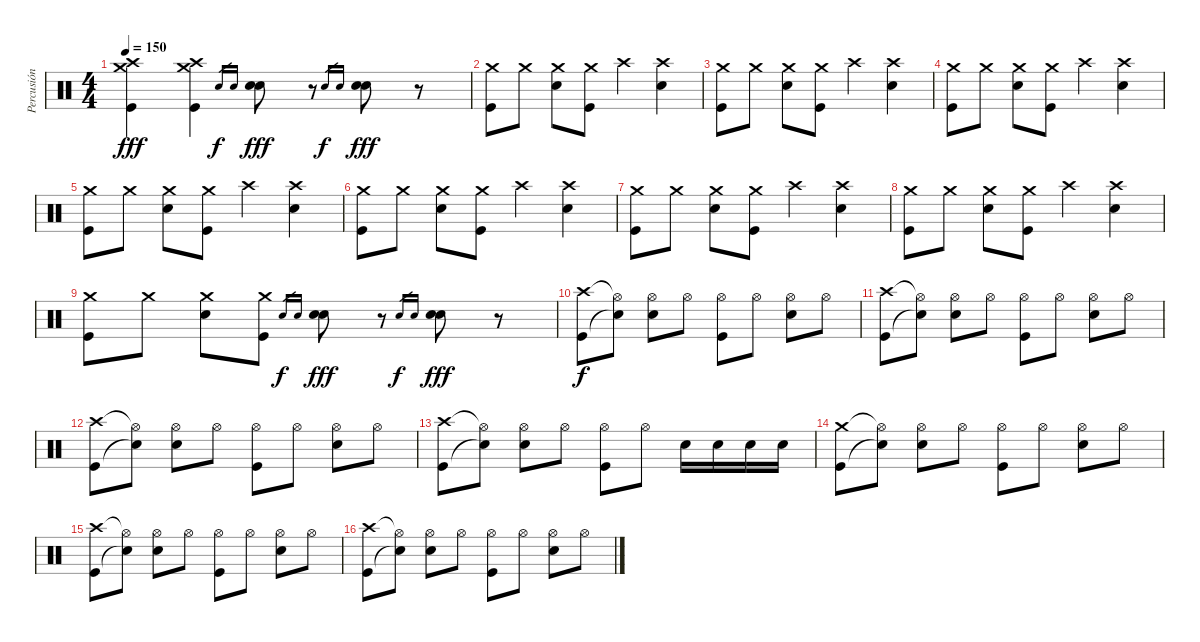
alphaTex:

\track ("Percusión" "Percusión") {instrument percussion}
\staff {score}
\articulation defaults
\ts (4 4)
\tempo 150
\clef neutral
\ks c
("Kick (hit)" "Crash high (hit)" "Crash medium (hit)").4{dy fff} ("Kick (hit)" "Crash high (hit)" "Crash medium (hit)").4 "Electric Snare (hit)".16{gr dy f} "Electric Snare (hit)".16{gr} ("Electric Snare (hit)" "Electric Snare (hit)").8{dy fff} r.8 "Electric Snare (hit)".16{gr dy f} "Electric Snare (hit)".16{gr} ("Electric Snare (hit)" "Electric Snare (hit)").8{dy fff} r.8 |
("Crash medium (hit)" "Kick (hit)").8 "Crash medium (hit)".8 ("Crash medium (hit)" "Electric Snare (hit)").8 ("Crash medium (hit)" "Kick (hit)").8 "Crash high (hit)".4 ("Crash high (hit)" "Electric Snare (hit)").4 |
("Crash medium (hit)" "Kick (hit)").8 "Crash medium (hit)".8 ("Crash medium (hit)" "Electric Snare (hit)").8 ("Crash medium (hit)" "Kick (hit)").8 "Crash high (hit)".4 ("Crash high (hit)" "Electric Snare (hit)").4 |
("Crash medium (hit)" "Kick (hit)").8 "Crash medium (hit)".8 ("Crash medium (hit)" "Electric Snare (hit)").8 ("Crash medium (hit)" "Kick (hit)").8 "Crash high (hit)".4 ("Crash high (hit)" "Electric Snare (hit)").4 |
("Crash medium (hit)" "Kick (hit)").8 "Crash medium (hit)".8 ("Crash medium (hit)" "Electric Snare (hit)").8 ("Crash medium (hit)" "Kick (hit)").8 "Crash high (hit)".4 ("Crash high (hit)" "Electric Snare (hit)").4 |
("Crash medium (hit)" "Kick (hit)").8 "Crash medium (hit)".8 ("Crash medium (hit)" "Electric Snare (hit)").8 ("Crash medium (hit)" "Kick (hit)").8 "Crash high (hit)".4 ("Crash high (hit)" "Electric Snare (hit)").4 |
("Crash medium (hit)" "Kick (hit)").8 "Crash medium (hit)".8 ("Crash medium (hit)" "Electric Snare (hit)").8 ("Crash medium (hit)" "Kick (hit)").8 "Crash high (hit)".4 ("Crash high (hit)" "Electric Snare (hit)").4 |
("Crash medium (hit)" "Kick (hit)").8 "Crash medium (hit)".8 ("Crash medium (hit)" "Electric Snare (hit)").8 ("Crash medium (hit)" "Kick (hit)").8 "Crash high (hit)".4 ("Crash high (hit)" "Electric Snare (hit)").4 |
("Crash medium (hit)" "Kick (hit)").8 "Crash medium (hit)".8 ("Crash medium (hit)" "Electric Snare (hit)").8 ("Crash medium (hit)" "Kick (hit)").8 "Electric Snare (hit)".16{gr dy f} "Electric Snare (hit)".16{gr} ("Electric Snare (hit)" "Electric Snare (hit)").8{dy fff} r.8 "Electric Snare (hit)".16{gr dy f} "Electric Snare (hit)".16{gr} ("Electric Snare (hit)" "Electric Snare (hit)").8{dy fff} r.8 |
("Kick (hit)" "Crash high (hit)").8{dy f} ("Snare (hit)"{t} "Hi-Hat (open)"{t}).8 ("Electric Snare (hit)" "Hi-Hat (open)").8 "Hi-Hat (open)".8 ("Kick (hit)" "Hi-Hat (open)").8 "Hi-Hat (open)".8 ("Electric Snare (hit)" "Hi-Hat (open)").8 "Hi-Hat (open)".8 |
("Kick (hit)" "Crash high (hit)").8 ("Snare (hit)"{t} "Hi-Hat (open)"{t}).8 ("Electric Snare (hit)" "Hi-Hat (open)").8 "Hi-Hat (open)".8 ("Kick (hit)" "Hi-Hat (open)").8 "Hi-Hat (open)".8 ("Electric Snare (hit)" "Hi-Hat (open)").8 "Hi-Hat (open)".8 |
("Kick (hit)" "Crash high (hit)").8 ("Snare (hit)"{t} "Hi-Hat (open)"{t}).8 ("Electric Snare (hit)" "Hi-Hat (open)").8 "Hi-Hat (open)".8 ("Kick (hit)" "Hi-Hat (open)").8 "Hi-Hat (open)".8 ("Electric Snare (hit)" "Hi-Hat (open)").8 "Hi-Hat (open)".8 |
("Kick (hit)" "Crash high (hit)").8 ("Snare (hit)"{t} "Hi-Hat (open)"{t}).8 ("Electric Snare (hit)" "Hi-Hat (open)").8 "Hi-Hat (open)".8 ("Kick (hit)" "Hi-Hat (open)").8 "Hi-Hat (open)".8 "Electric Snare (hit)".16 "Electric Snare (hit)".16 "Electric Snare (hit)".16 "Electric Snare (hit)".16 |
("Kick (hit)" "Crash medium (hit)").8 ("Snare (hit)"{t} "Hi-Hat (open)"{t}).8 ("Electric Snare (hit)" "Hi-Hat (open)").8 "Hi-Hat (open)".8 ("Kick (hit)" "Hi-Hat (open)").8 "Hi-Hat (open)".8 ("Electric Snare (hit)" "Hi-Hat (open)").8 "Hi-Hat (open)".8 |
("Kick (hit)" "Crash high (hit)").8 ("Snare (hit)"{t} "Hi-Hat (open)"{t}).8 ("Electric Snare (hit)" "Hi-Hat (open)").8 "Hi-Hat (open)".8 ("Kick (hit)" "Hi-Hat (open)").8 "Hi-Hat (open)".8 ("Electric Snare (hit)" "Hi-Hat (open)").8 "Hi-Hat (open)".8 |
("Kick (hit)" "Crash high (hit)").8 ("Snare (hit)"{t} "Hi-Hat (open)"{t}).8 ("Electric Snare (hit)" "Hi-Hat (open)").8 "Hi-Hat (open)".8 ("Kick (hit)" "Hi-Hat (open)").8 "Hi-Hat (open)".8 ("Electric Snare (hit)" "Hi-Hat (open)").8 "Hi-Hat (open)".8
